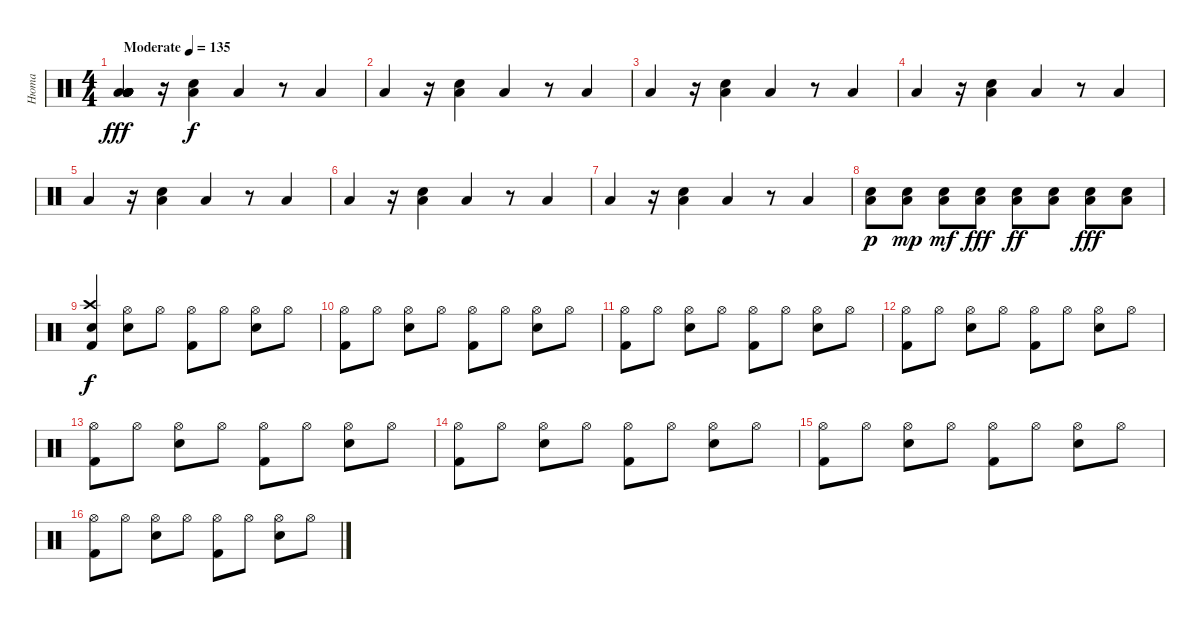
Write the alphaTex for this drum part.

\track ("Нюта" "Нюта") {instrument percussion}
\staff {score}
\articulation defaults
\ts (4 4)
\tempo (135 "Moderate")
\clef neutral
\ks c
("Low Floor Tom (hit)" "Low Floor Tom (hit)" "Low Floor Tom (hit)" "Low Floor Tom (hit)" "Low Floor Tom (hit)" "Low Floor Tom (hit)").4{dy fff} r.16 ("Low Floor Tom (hit)" "Electric Snare (hit)").4{dy f} "Low Floor Tom (hit)".4 r.8 "Low Floor Tom (hit)".4 |
"Low Floor Tom (hit)".4 r.16 ("Low Floor Tom (hit)" "Electric Snare (hit)").4 "Low Floor Tom (hit)".4 r.8 "Low Floor Tom (hit)".4 |
"Low Floor Tom (hit)".4 r.16 ("Low Floor Tom (hit)" "Electric Snare (hit)").4 "Low Floor Tom (hit)".4 r.8 "Low Floor Tom (hit)".4 |
"Low Floor Tom (hit)".4 r.16 ("Low Floor Tom (hit)" "Electric Snare (hit)").4 "Low Floor Tom (hit)".4 r.8 "Low Floor Tom (hit)".4 |
"Low Floor Tom (hit)".4 r.16 ("Low Floor Tom (hit)" "Electric Snare (hit)").4 "Low Floor Tom (hit)".4 r.8 "Low Floor Tom (hit)".4 |
"Low Floor Tom (hit)".4 r.16 ("Low Floor Tom (hit)" "Electric Snare (hit)").4 "Low Floor Tom (hit)".4 r.8 "Low Floor Tom (hit)".4 |
"Low Floor Tom (hit)".4 r.16 ("Low Floor Tom (hit)" "Electric Snare (hit)").4 "Low Floor Tom (hit)".4 r.8 "Low Floor Tom (hit)".4 |
("Low Floor Tom (hit)" "Electric Snare (hit)").8{dy p} ("Low Floor Tom (hit)" "Electric Snare (hit)").8{dy mp} ("Low Floor Tom (hit)" "Electric Snare (hit)").8{dy mf} ("Electric Snare (hit)" "Low Floor Tom (hit)").8{dy fff} ("Electric Snare (hit)" "Low Floor Tom (hit)").8{dy ff} ("Electric Snare (hit)" "Low Floor Tom (hit)").8 ("Electric Snare (hit)" "Low Floor Tom (hit)").8{dy fff} ("Electric Snare (hit)" "Low Floor Tom (hit)").8 |
("Crash high (hit)" "Kick (hit) 2" "Electric Snare (hit)").4{dy f} ("Hi-Hat (open)" "Electric Snare (hit)").8 "Hi-Hat (open)".8 ("Hi-Hat (open)" "Kick (hit) 2").8 "Hi-Hat (open)".8 ("Hi-Hat (open)" "Electric Snare (hit)").8 "Hi-Hat (open)".8 |
("Hi-Hat (open)" "Kick (hit) 2").8 "Hi-Hat (open)".8 ("Hi-Hat (open)" "Electric Snare (hit)").8 "Hi-Hat (open)".8 ("Hi-Hat (open)" "Kick (hit) 2").8 "Hi-Hat (open)".8 ("Hi-Hat (open)" "Electric Snare (hit)").8 "Hi-Hat (open)".8 |
("Hi-Hat (open)" "Kick (hit) 2").8 "Hi-Hat (open)".8 ("Hi-Hat (open)" "Electric Snare (hit)").8 "Hi-Hat (open)".8 ("Hi-Hat (open)" "Kick (hit) 2").8 "Hi-Hat (open)".8 ("Hi-Hat (open)" "Electric Snare (hit)").8 "Hi-Hat (open)".8 |
("Hi-Hat (open)" "Kick (hit) 2").8 "Hi-Hat (open)".8 ("Hi-Hat (open)" "Electric Snare (hit)").8 "Hi-Hat (open)".8 ("Hi-Hat (open)" "Kick (hit) 2").8 "Hi-Hat (open)".8 ("Hi-Hat (open)" "Electric Snare (hit)").8 "Hi-Hat (open)".8 |
("Hi-Hat (open)" "Kick (hit) 2").8 "Hi-Hat (open)".8 ("Hi-Hat (open)" "Electric Snare (hit)").8 "Hi-Hat (open)".8 ("Hi-Hat (open)" "Kick (hit) 2").8 "Hi-Hat (open)".8 ("Hi-Hat (open)" "Electric Snare (hit)").8 "Hi-Hat (open)".8 |
("Hi-Hat (open)" "Kick (hit) 2").8 "Hi-Hat (open)".8 ("Hi-Hat (open)" "Electric Snare (hit)").8 "Hi-Hat (open)".8 ("Hi-Hat (open)" "Kick (hit) 2").8 "Hi-Hat (open)".8 ("Hi-Hat (open)" "Electric Snare (hit)").8 "Hi-Hat (open)".8 |
("Hi-Hat (open)" "Kick (hit) 2").8 "Hi-Hat (open)".8 ("Hi-Hat (open)" "Electric Snare (hit)").8 "Hi-Hat (open)".8 ("Hi-Hat (open)" "Kick (hit) 2").8 "Hi-Hat (open)".8 ("Hi-Hat (open)" "Electric Snare (hit)").8 "Hi-Hat (open)".8 |
("Hi-Hat (open)" "Kick (hit) 2").8 "Hi-Hat (open)".8 ("Hi-Hat (open)" "Electric Snare (hit)").8 "Hi-Hat (open)".8 ("Hi-Hat (open)" "Kick (hit) 2").8 "Hi-Hat (open)".8 ("Hi-Hat (open)" "Electric Snare (hit)").8 "Hi-Hat (open)".8
